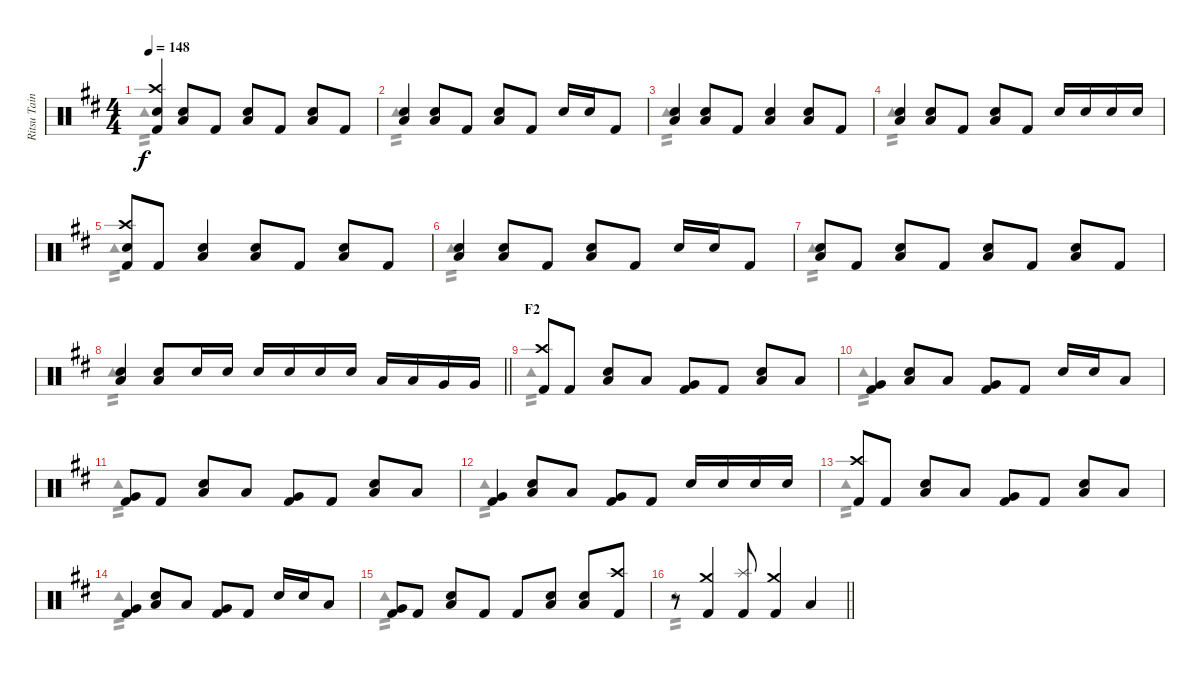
\track ("Ritsu Tainaka" "Ritsu Tain") {instrument percussion}
\staff {score}
\articulation defaults
\voice
\ts (4 4)
\tempo 148
\clef neutral
\ks d
("Crash high (hit)" "Snare (hit) 2" "Kick (hit) 2").4{dy f} ("Snare (hit) 2" "Low Floor Tom (hit)").8 "Kick (hit) 2".8 ("Snare (hit) 2" "Low Floor Tom (hit)").8 "Kick (hit) 2".8 ("Snare (hit) 2" "Low Floor Tom (hit)").8 "Kick (hit) 2".8 |
("Snare (hit) 2" "Low Floor Tom (hit)").4 ("Snare (hit) 2" "Low Floor Tom (hit)").8 "Kick (hit) 2".8 ("Snare (hit) 2" "Low Floor Tom (hit)").8 "Kick (hit) 2".8 "Snare (hit) 2".16 "Snare (hit) 2".16 "Kick (hit) 2".8 |
("Snare (hit) 2" "Low Floor Tom (hit)").4 ("Snare (hit) 2" "Low Floor Tom (hit)").8 "Kick (hit) 2".8 ("Snare (hit) 2" "Low Floor Tom (hit)").4 ("Snare (hit) 2" "Low Floor Tom (hit)").8 "Kick (hit) 2".8 |
("Snare (hit) 2" "Low Floor Tom (hit)").4 ("Snare (hit) 2" "Low Floor Tom (hit)").8 "Kick (hit) 2".8 ("Snare (hit) 2" "Low Floor Tom (hit)").8 "Kick (hit) 2".8 "Snare (hit) 2".16 "Snare (hit) 2".16 "Snare (hit) 2".16 "Snare (hit) 2".16 |
("Crash high (hit)" "Snare (hit) 2" "Kick (hit) 2").8 "Kick (hit) 2".8 ("Snare (hit) 2" "Low Floor Tom (hit)").4 ("Snare (hit) 2" "Low Floor Tom (hit)").8 "Kick (hit) 2".8 ("Snare (hit) 2" "Low Floor Tom (hit)").8 "Kick (hit) 2".8 |
("Snare (hit) 2" "Low Floor Tom (hit)").4 ("Snare (hit) 2" "Low Floor Tom (hit)").8 "Kick (hit) 2".8 ("Snare (hit) 2" "Low Floor Tom (hit)").8 "Kick (hit) 2".8 "Snare (hit) 2".16 "Snare (hit) 2".16 "Kick (hit) 2".8 |
("Snare (hit) 2" "Low Floor Tom (hit)").8 "Kick (hit) 2".8 ("Snare (hit) 2" "Low Floor Tom (hit)").8 "Kick (hit) 2".8 ("Snare (hit) 2" "Low Floor Tom (hit)").8 "Kick (hit) 2".8 ("Snare (hit) 2" "Low Floor Tom (hit)").8 "Kick (hit) 2".8 |
\barLineRight lightlight
("Snare (hit) 2" "Low Floor Tom (hit)").4 ("Snare (hit) 2" "Low Floor Tom (hit)").8 "Snare (hit) 2".16 "Snare (hit) 2".16 "Snare (hit) 2".16 "Snare (hit) 2".16 "Snare (hit) 2".16 "Snare (hit) 2".16 "Low Tom (hit)".16 "Low Tom (hit)".16 "Very Low Tom (hit)".16 "Very Low Tom (hit)".16 |
\section ("" "F2")
("Crash high (hit)" "Kick (hit) 2").8 "Kick (hit) 2".8 ("Snare (hit) 2" "Low Floor Tom (hit)").8 "Low Tom (hit)".8 ("Very Low Tom (hit)" "Kick (hit) 2").8 "Kick (hit) 2".8 ("Snare (hit) 2" "Low Floor Tom (hit)").8 "Low Tom (hit)".8 |
("Very Low Tom (hit)" "Kick (hit) 2").4 ("Snare (hit) 2" "Low Floor Tom (hit)").8 "Low Tom (hit)".8 ("Very Low Tom (hit)" "Kick (hit) 2").8 "Kick (hit) 2".8 "Snare (hit) 2".16 "Snare (hit) 2".16 "Low Tom (hit)".8 |
("Very Low Tom (hit)" "Kick (hit) 2").8 "Kick (hit) 2".8 ("Snare (hit) 2" "Low Floor Tom (hit)").8 "Low Tom (hit)".8 ("Very Low Tom (hit)" "Kick (hit) 2").8 "Kick (hit) 2".8 ("Snare (hit) 2" "Low Floor Tom (hit)").8 "Low Tom (hit)".8 |
("Very Low Tom (hit)" "Kick (hit) 2").4 ("Snare (hit) 2" "Low Floor Tom (hit)").8 "Low Tom (hit)".8 ("Very Low Tom (hit)" "Kick (hit) 2").8 "Kick (hit) 2".8 "Snare (hit) 2".16 "Snare (hit) 2".16 "Snare (hit) 2".16 "Snare (hit) 2".16 |
("Crash high (hit)" "Kick (hit) 2").8 "Kick (hit) 2".8 ("Snare (hit) 2" "Low Floor Tom (hit)").8 "Low Tom (hit)".8 ("Very Low Tom (hit)" "Kick (hit) 2").8 "Kick (hit) 2".8 ("Snare (hit) 2" "Low Floor Tom (hit)").8 "Low Tom (hit)".8 |
("Very Low Tom (hit)" "Kick (hit) 2").4 ("Snare (hit) 2" "Low Floor Tom (hit)").8 "Low Tom (hit)".8 ("Very Low Tom (hit)" "Kick (hit) 2").8 "Kick (hit) 2".8 "Snare (hit) 2".16 "Snare (hit) 2".16 "Low Tom (hit)".8 |
("Very Low Tom (hit)" "Kick (hit) 2").8 "Kick (hit) 2".8 ("Snare (hit) 2" "Low Floor Tom (hit)").8 "Kick (hit) 2".8 "Kick (hit) 2".8 ("Snare (hit) 2" "Low Floor Tom (hit)").8 ("Snare (hit) 2" "Low Floor Tom (hit)").8 ("Crash high (hit)" "Kick (hit) 2").8 |
\barLineRight lightlight
r.8 ("Crash medium (hit)" "Kick (hit) 2").4 ("Splash (hit)" "Kick (hit) 2").8 ("Crash medium (hit)" "Kick (hit) 2").4 "Low Floor Tom (hit)".4
\voice
\clef neutral
\ottava regular
\simile none
\ks d "Tambourine (hit)".1{tp 2 dy f}
|
"Tambourine (hit)".1{tp 2} |
"Tambourine (hit)".1{tp 2} |
"Tambourine (hit)".1{tp 2} |
"Tambourine (hit)".1{tp 2} |
"Tambourine (hit)".1{tp 2} |
"Tambourine (hit)".1{tp 2} |
\barLineRight lightlight "Tambourine (hit)".1{tp 2}
|
"Tambourine (hit)".1{tp 2} |
"Tambourine (hit)".1{tp 2} |
"Tambourine (hit)".1{tp 2} |
"Tambourine (hit)".1{tp 2} |
"Tambourine (hit)".1{tp 2} |
"Tambourine (hit)".1{tp 2} |
"Tambourine (hit)".1{tp 2} |
\barLineRight lightlight "Tambourine (hit)".1{tp 2}
